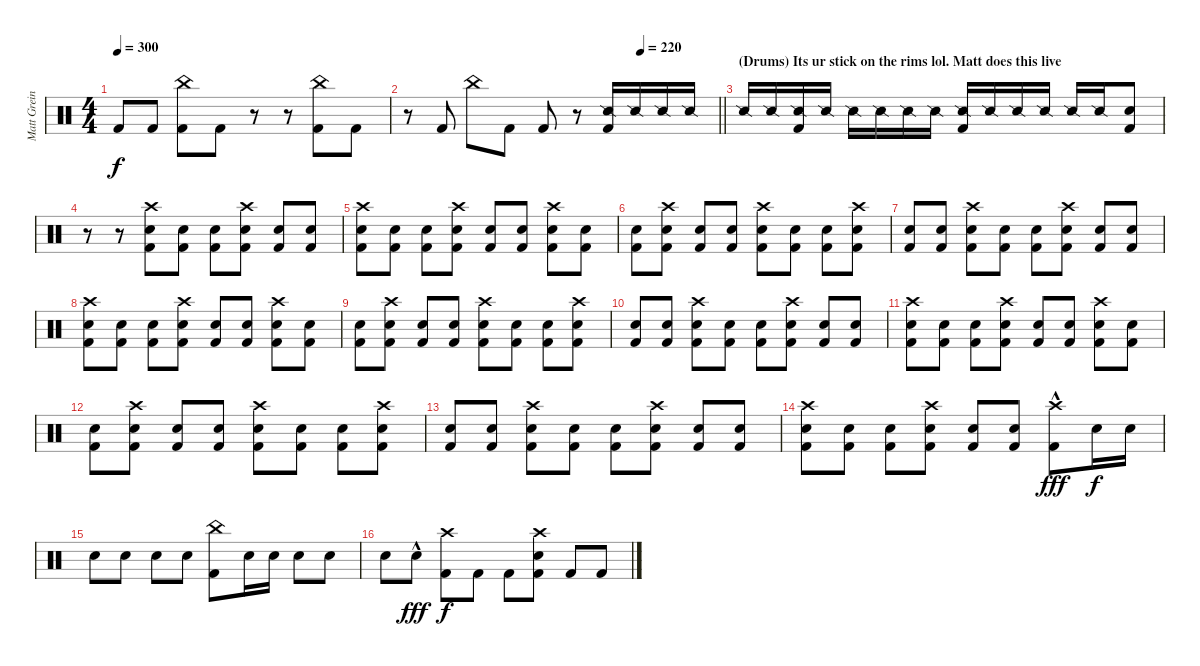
\track ("Matt Greiner (Drums)" "Matt Grein") {instrument percussion}
\staff {score}
\articulation defaults
\ts (4 4)
\tempo 300
\clef neutral
\ks c "Kick (hit) 2".8{dy f} "Kick (hit) 2".8
("China (hit)" "Kick (hit) 2").8 "Kick (hit) 2".8 r.8 r.8 ("China (hit)" "Kick (hit) 2").8 "Kick (hit) 2".8 |
\tempo (220 0.75)
\barLineRight lightlight
r.8 "Kick (hit) 2".8 "China (hit)".8 "Kick (hit) 2".8 "Kick (hit) 2".8 r.8 ("Snare (side stick) 2" "Kick (hit) 2").16 "Snare (side stick) 2".16 "Snare (side stick) 2".16 "Snare (side stick) 2".16 |
\section ("" "(Drums) Its ur stick on the rims lol. Matt does this live")
"Snare (side stick) 2".16 "Snare (side stick) 2".16 ("Snare (side stick) 2" "Kick (hit) 2").16 "Snare (side stick) 2".16 "Snare (side stick) 2".16 "Snare (side stick) 2".16 "Snare (side stick) 2".16 "Snare (side stick) 2".16 ("Snare (side stick) 2" "Kick (hit) 2").16 "Snare (side stick) 2".16 "Snare (side stick) 2".16 "Snare (side stick) 2".16 "Snare (side stick) 2".16 "Snare (side stick) 2".16 ("Electric Snare (hit)" "Kick (hit) 2").8 |
r.8 r.8 ("Crash high (hit)" "Electric Snare (hit)" "Kick (hit) 2").8 ("Electric Snare (hit)" "Kick (hit) 2").8 ("Electric Snare (hit)" "Kick (hit) 2").8 ("Crash high (hit)" "Electric Snare (hit)" "Kick (hit) 2").8 ("Electric Snare (hit)" "Kick (hit) 2").8 ("Electric Snare (hit)" "Kick (hit) 2").8 |
("Crash high (hit)" "Electric Snare (hit)" "Kick (hit) 2").8 ("Electric Snare (hit)" "Kick (hit) 2").8 ("Electric Snare (hit)" "Kick (hit) 2").8 ("Crash high (hit)" "Electric Snare (hit)" "Kick (hit) 2").8 ("Electric Snare (hit)" "Kick (hit) 2").8 ("Electric Snare (hit)" "Kick (hit) 2").8 ("Crash high (hit)" "Electric Snare (hit)" "Kick (hit) 2").8 ("Electric Snare (hit)" "Kick (hit) 2").8 |
("Electric Snare (hit)" "Kick (hit) 2").8 ("Crash high (hit)" "Electric Snare (hit)" "Kick (hit) 2").8 ("Electric Snare (hit)" "Kick (hit) 2").8 ("Electric Snare (hit)" "Kick (hit) 2").8 ("Crash high (hit)" "Electric Snare (hit)" "Kick (hit) 2").8 ("Electric Snare (hit)" "Kick (hit) 2").8 ("Electric Snare (hit)" "Kick (hit) 2").8 ("Crash high (hit)" "Electric Snare (hit)" "Kick (hit) 2").8 |
("Electric Snare (hit)" "Kick (hit) 2").8 ("Electric Snare (hit)" "Kick (hit) 2").8 ("Crash high (hit)" "Electric Snare (hit)" "Kick (hit) 2").8 ("Electric Snare (hit)" "Kick (hit) 2").8 ("Electric Snare (hit)" "Kick (hit) 2").8 ("Crash high (hit)" "Electric Snare (hit)" "Kick (hit) 2").8 ("Electric Snare (hit)" "Kick (hit) 2").8 ("Electric Snare (hit)" "Kick (hit) 2").8 |
("Crash high (hit)" "Electric Snare (hit)" "Kick (hit) 2").8 ("Electric Snare (hit)" "Kick (hit) 2").8 ("Electric Snare (hit)" "Kick (hit) 2").8 ("Crash high (hit)" "Electric Snare (hit)" "Kick (hit) 2").8 ("Electric Snare (hit)" "Kick (hit) 2").8 ("Electric Snare (hit)" "Kick (hit) 2").8 ("Crash high (hit)" "Electric Snare (hit)" "Kick (hit) 2").8 ("Electric Snare (hit)" "Kick (hit) 2").8 |
("Electric Snare (hit)" "Kick (hit) 2").8 ("Crash high (hit)" "Electric Snare (hit)" "Kick (hit) 2").8 ("Electric Snare (hit)" "Kick (hit) 2").8 ("Electric Snare (hit)" "Kick (hit) 2").8 ("Crash high (hit)" "Electric Snare (hit)" "Kick (hit) 2").8 ("Electric Snare (hit)" "Kick (hit) 2").8 ("Electric Snare (hit)" "Kick (hit) 2").8 ("Crash high (hit)" "Electric Snare (hit)" "Kick (hit) 2").8 |
("Electric Snare (hit)" "Kick (hit) 2").8 ("Electric Snare (hit)" "Kick (hit) 2").8 ("Crash high (hit)" "Electric Snare (hit)" "Kick (hit) 2").8 ("Electric Snare (hit)" "Kick (hit) 2").8 ("Electric Snare (hit)" "Kick (hit) 2").8 ("Crash high (hit)" "Electric Snare (hit)" "Kick (hit) 2").8 ("Electric Snare (hit)" "Kick (hit) 2").8 ("Electric Snare (hit)" "Kick (hit) 2").8 |
("Crash high (hit)" "Electric Snare (hit)" "Kick (hit) 2").8 ("Electric Snare (hit)" "Kick (hit) 2").8 ("Electric Snare (hit)" "Kick (hit) 2").8 ("Crash high (hit)" "Electric Snare (hit)" "Kick (hit) 2").8 ("Electric Snare (hit)" "Kick (hit) 2").8 ("Electric Snare (hit)" "Kick (hit) 2").8 ("Crash high (hit)" "Electric Snare (hit)" "Kick (hit) 2").8 ("Electric Snare (hit)" "Kick (hit) 2").8 |
("Electric Snare (hit)" "Kick (hit) 2").8 ("Crash high (hit)" "Electric Snare (hit)" "Kick (hit) 2").8 ("Electric Snare (hit)" "Kick (hit) 2").8 ("Electric Snare (hit)" "Kick (hit) 2").8 ("Crash high (hit)" "Electric Snare (hit)" "Kick (hit) 2").8 ("Electric Snare (hit)" "Kick (hit) 2").8 ("Electric Snare (hit)" "Kick (hit) 2").8 ("Crash high (hit)" "Electric Snare (hit)" "Kick (hit) 2").8 |
("Electric Snare (hit)" "Kick (hit) 2").8 ("Electric Snare (hit)" "Kick (hit) 2").8 ("Crash high (hit)" "Electric Snare (hit)" "Kick (hit) 2").8 ("Electric Snare (hit)" "Kick (hit) 2").8 ("Electric Snare (hit)" "Kick (hit) 2").8 ("Crash high (hit)" "Electric Snare (hit)" "Kick (hit) 2").8 ("Electric Snare (hit)" "Kick (hit) 2").8 ("Electric Snare (hit)" "Kick (hit) 2").8 |
("Crash high (hit)" "Electric Snare (hit)" "Kick (hit) 2").8 ("Electric Snare (hit)" "Kick (hit) 2").8 ("Electric Snare (hit)" "Kick (hit) 2").8 ("Crash high (hit)" "Electric Snare (hit)" "Kick (hit) 2").8 ("Electric Snare (hit)" "Kick (hit) 2").8 ("Electric Snare (hit)" "Kick (hit) 2").8 ("Crash high (hit)"{hac} "Kick (hit) 2").8{dy fff} "Electric Snare (hit)".16{dy f} "Electric Snare (hit)".16 |
"Electric Snare (hit)".8 "Electric Snare (hit)".8 "Electric Snare (hit)".8 "Electric Snare (hit)".8 ("China (hit)" "Kick (hit) 2").8 "Electric Snare (hit)".16 "Electric Snare (hit)".16 "Electric Snare (hit)".8 "Electric Snare (hit)".8 |
"Electric Snare (hit)".8 "Electric Snare (hit)"{hac}.8{dy fff} ("Crash high (hit)" "Kick (hit) 2").8{dy f} "Kick (hit) 2".8 "Kick (hit) 2".8 ("Crash high (hit)" "Electric Snare (hit)" "Kick (hit) 2").8 "Kick (hit) 2".8 "Kick (hit) 2".8
